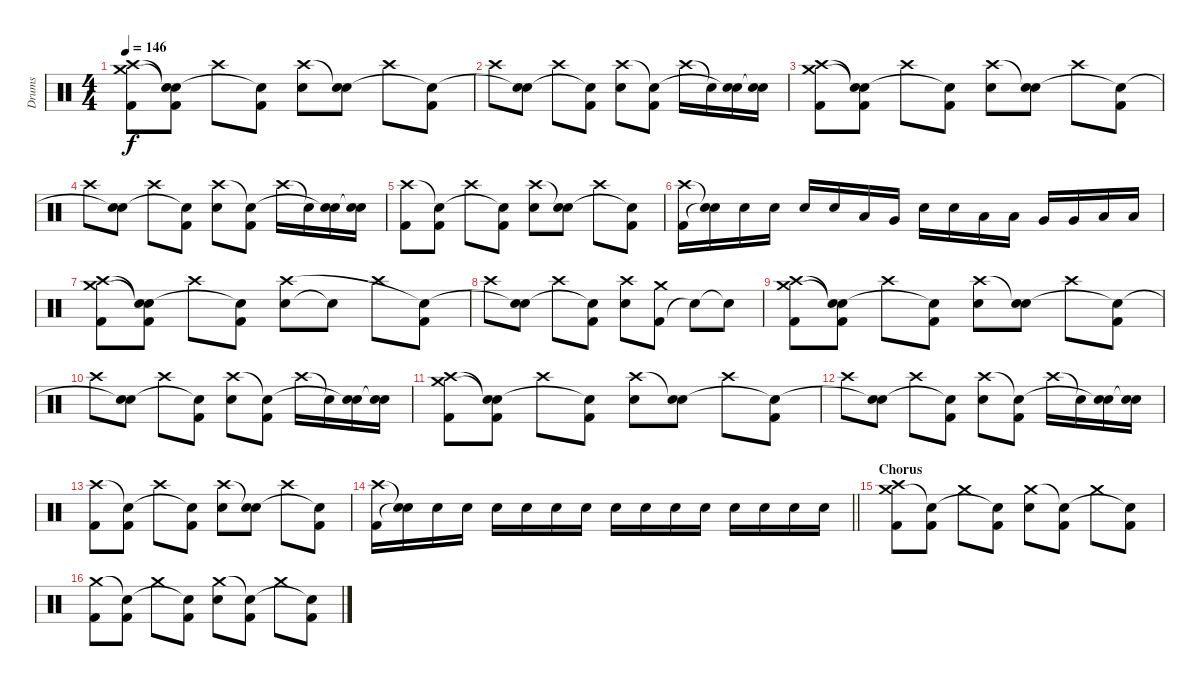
\track ("Drums" "Drums") {instrument percussion}
\staff {score}
\articulation defaults
\ts (4 4)
\tempo 146
\clef neutral
\ks c
("Kick (hit) 2" "Crash medium (hit)" "Crash high (hit)").8{dy f} ("Kick (hit) 2" "Snare (hit)"{t} "Snare (hit)"{t}).8 "Crash high (hit)".8 ("Kick (hit) 2" "Snare (hit)"{t}).8 ("Electric Snare (hit)" "Crash high (hit)").8 ("Electric Snare (hit)" "Snare (hit)"{t}).8 "Crash high (hit)".8 ("Kick (hit) 2" "Snare (hit)"{t}).8 |
"Crash high (hit)".8 ("Electric Snare (hit)" "Snare (hit)"{t}).8 "Crash high (hit)".8 ("Kick (hit) 2" "Snare (hit)"{t}).8 ("Electric Snare (hit)" "Crash high (hit)").8 ("Kick (hit) 2" "Snare (hit)"{t}).8 "Crash high (hit)".16 "Snare (hit)"{t}.16 ("Electric Snare (hit)" "Snare (hit)"{t}).16 ("Electric Snare (hit)" "Snare (hit)"{t}).16 |
("Kick (hit) 2" "Crash medium (hit)" "Crash high (hit)").8 ("Kick (hit) 2" "Snare (hit)"{t} "Snare (hit)"{t}).8 "Crash high (hit)".8 ("Kick (hit) 2" "Snare (hit)"{t}).8 ("Electric Snare (hit)" "Crash high (hit)").8 ("Electric Snare (hit)" "Snare (hit)"{t}).8 "Crash high (hit)".8 ("Kick (hit) 2" "Snare (hit)"{t}).8 |
"Crash high (hit)".8 ("Electric Snare (hit)" "Snare (hit)"{t}).8 "Crash high (hit)".8 ("Kick (hit) 2" "Snare (hit)"{t}).8 ("Electric Snare (hit)" "Crash high (hit)").8 ("Kick (hit) 2" "Snare (hit)"{t}).8 "Crash high (hit)".16 "Snare (hit)"{t}.16 ("Electric Snare (hit)" "Snare (hit)"{t}).16 ("Electric Snare (hit)" "Snare (hit)"{t}).16 |
("Kick (hit) 2" "Crash high (hit)").8 ("Kick (hit) 2" "Snare (hit)"{t}).8 "Crash high (hit)".8 ("Kick (hit) 2" "Snare (hit)"{t}).8 ("Electric Snare (hit)" "Crash high (hit)").8 ("Electric Snare (hit)" "Snare (hit)"{t}).8 "Crash high (hit)".8 ("Kick (hit) 2" "Snare (hit)"{t}).8 |
("Kick (hit) 2" "Crash high (hit)").16 ("Electric Snare (hit)"{t} "Snare (hit)"{t}).16 "Electric Snare (hit)".16 "Electric Snare (hit)".16 "Electric Snare (hit)".16 "Electric Snare (hit)".16 "Low Tom (hit)".16 "Very Low Tom (hit)".16 "Electric Snare (hit)".16 "Electric Snare (hit)".16 "Low Tom (hit)".16 "Low Tom (hit)".16 "Very Low Tom (hit)".16 "Very Low Tom (hit)".16 "Low Floor Tom (hit)".16 "Low Floor Tom (hit)".16 |
("Kick (hit) 2" "Crash medium (hit)" "Crash high (hit)").8 ("Kick (hit) 2" "Snare (hit)"{t} "Snare (hit)"{t}).8 "Crash high (hit)".8 ("Kick (hit) 2" "Snare (hit)"{t}).8 ("Electric Snare (hit)" "Crash high (hit)").8 "Snare (hit)"{t}.8 "Crash high (hit)".8 ("Kick (hit) 2" "Snare (hit)"{t}).8 |
"Crash high (hit)".8 ("Electric Snare (hit)" "Snare (hit)"{t}).8 "Crash high (hit)".8 ("Kick (hit) 2" "Snare (hit)"{t}).8 ("Electric Snare (hit)" "Crash high (hit)").8 ("Kick (hit) 2" "Crash medium (hit)").8 "Snare (hit)"{t}.8 "Snare (hit)"{t}.8 |
("Kick (hit) 2" "Crash medium (hit)" "Crash high (hit)").8 ("Kick (hit) 2" "Snare (hit)"{t} "Snare (hit)"{t}).8 "Crash high (hit)".8 ("Kick (hit) 2" "Snare (hit)"{t}).8 ("Electric Snare (hit)" "Crash high (hit)").8 ("Electric Snare (hit)" "Snare (hit)"{t}).8 "Crash high (hit)".8 ("Kick (hit) 2" "Snare (hit)"{t}).8 |
"Crash high (hit)".8 ("Electric Snare (hit)" "Snare (hit)"{t}).8 "Crash high (hit)".8 ("Kick (hit) 2" "Snare (hit)"{t}).8 ("Electric Snare (hit)" "Crash high (hit)").8 ("Kick (hit) 2" "Snare (hit)"{t}).8 "Crash high (hit)".16 "Snare (hit)"{t}.16 ("Electric Snare (hit)" "Snare (hit)"{t}).16 ("Electric Snare (hit)" "Snare (hit)"{t}).16 |
("Kick (hit) 2" "Crash medium (hit)" "Crash high (hit)").8 ("Kick (hit) 2" "Snare (hit)"{t} "Snare (hit)"{t}).8 "Crash high (hit)".8 ("Kick (hit) 2" "Snare (hit)"{t}).8 ("Electric Snare (hit)" "Crash high (hit)").8 ("Electric Snare (hit)" "Snare (hit)"{t}).8 "Crash high (hit)".8 ("Kick (hit) 2" "Snare (hit)"{t}).8 |
"Crash high (hit)".8 ("Electric Snare (hit)" "Snare (hit)"{t}).8 "Crash high (hit)".8 ("Kick (hit) 2" "Snare (hit)"{t}).8 ("Electric Snare (hit)" "Crash high (hit)").8 ("Kick (hit) 2" "Snare (hit)"{t}).8 "Crash high (hit)".16 "Snare (hit)"{t}.16 ("Electric Snare (hit)" "Snare (hit)"{t}).16 ("Electric Snare (hit)" "Snare (hit)"{t}).16 |
("Kick (hit) 2" "Crash high (hit)").8 ("Kick (hit) 2" "Snare (hit)"{t}).8 "Crash high (hit)".8 ("Kick (hit) 2" "Snare (hit)"{t}).8 ("Electric Snare (hit)" "Crash high (hit)").8 ("Electric Snare (hit)" "Snare (hit)"{t}).8 "Crash high (hit)".8 ("Kick (hit) 2" "Snare (hit)"{t}).8 |
\barLineRight lightlight
("Kick (hit) 2" "Crash high (hit)").16 ("Electric Snare (hit)"{t} "Snare (hit)"{t}).16 "Electric Snare (hit)".16 "Electric Snare (hit)".16 "Electric Snare (hit)".16 "Electric Snare (hit)".16 "Electric Snare (hit)".16 "Electric Snare (hit)".16 "Electric Snare (hit)".16 "Electric Snare (hit)".16 "Electric Snare (hit)".16 "Electric Snare (hit)".16 "Electric Snare (hit)".16 "Electric Snare (hit)".16 "Electric Snare (hit)".16 "Electric Snare (hit)".16 |
\section ("" "Chorus")
("Kick (hit) 2" "Crash medium (hit)" "Crash high (hit)").8 ("Kick (hit) 2" "Snare (hit)"{t}).8 "Crash medium (hit)".8 ("Kick (hit) 2" "Snare (hit)"{t}).8 ("Electric Snare (hit)" "Crash medium (hit)").8 ("Kick (hit) 2" "Snare (hit)"{t}).8 "Crash medium (hit)".8 ("Kick (hit) 2" "Snare (hit)"{t}).8 |
("Kick (hit) 2" "Crash medium (hit)").8 ("Kick (hit) 2" "Snare (hit)"{t}).8 "Crash medium (hit)".8 ("Kick (hit) 2" "Snare (hit)"{t}).8 ("Electric Snare (hit)" "Crash medium (hit)").8 ("Kick (hit) 2" "Snare (hit)"{t}).8 "Crash medium (hit)".8 ("Kick (hit) 2" "Snare (hit)"{t}).8
